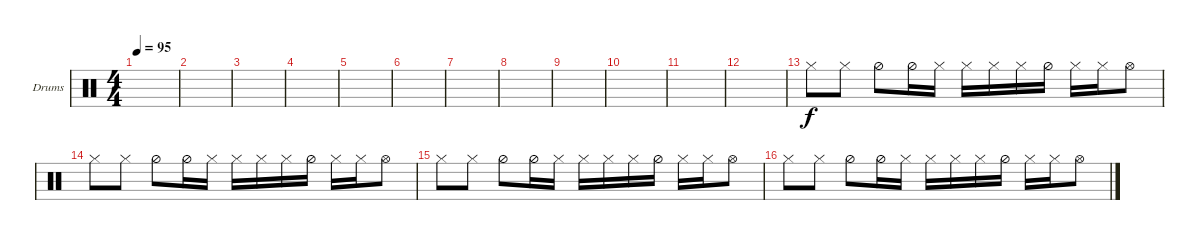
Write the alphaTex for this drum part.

\defaultSystemsLayout 4
\bracketExtendMode groupsimilarinstruments
\firstSystemTrackNameOrientation horizontal
\otherSystemsTrackNameOrientation horizontal
\track ("Drumkit" "Drums") {instrument percussion}
\staff {score}
\articulation defaults
\ts (4 4)
\tempo 95
\clef neutral
\scale
0.333333
\ks c
|
\scale
0.333333 |
\scale
0.333333 |
\scale
0.333333 |
\scale
0.333333 |
\scale
0.333333 |
\scale
0.333333 |
\scale
0.333333 |
\scale
0.333333 |
\scale
0.333333 |
|
|
"Hi-Hat (closed)".8 "Hi-Hat (closed)".8 "Hi-Hat (half)".8 "Hi-Hat (half)".16 "Hi-Hat (closed)".16 "Hi-Hat (closed)".16 "Hi-Hat (closed)".16 "Hi-Hat (closed)".16 "Hi-Hat (half)".16 "Hi-Hat (closed)".16 "Hi-Hat (closed)".16 "Hi-Hat (open)".8 |
"Hi-Hat (closed)".8 "Hi-Hat (closed)".8 "Hi-Hat (half)".8 "Hi-Hat (half)".16 "Hi-Hat (closed)".16 "Hi-Hat (closed)".16 "Hi-Hat (closed)".16 "Hi-Hat (closed)".16 "Hi-Hat (half)".16 "Hi-Hat (closed)".16 "Hi-Hat (closed)".16 "Hi-Hat (open)".8 |
"Hi-Hat (closed)".8 "Hi-Hat (closed)".8 "Hi-Hat (half)".8 "Hi-Hat (half)".16 "Hi-Hat (closed)".16 "Hi-Hat (closed)".16 "Hi-Hat (closed)".16 "Hi-Hat (closed)".16 "Hi-Hat (half)".16 "Hi-Hat (closed)".16 "Hi-Hat (closed)".16 "Hi-Hat (open)".8 |
"Hi-Hat (closed)".8 "Hi-Hat (closed)".8 "Hi-Hat (half)".8 "Hi-Hat (half)".16 "Hi-Hat (closed)".16 "Hi-Hat (closed)".16 "Hi-Hat (closed)".16 "Hi-Hat (closed)".16 "Hi-Hat (half)".16 "Hi-Hat (closed)".16 "Hi-Hat (closed)".16 "Hi-Hat (open)".8
